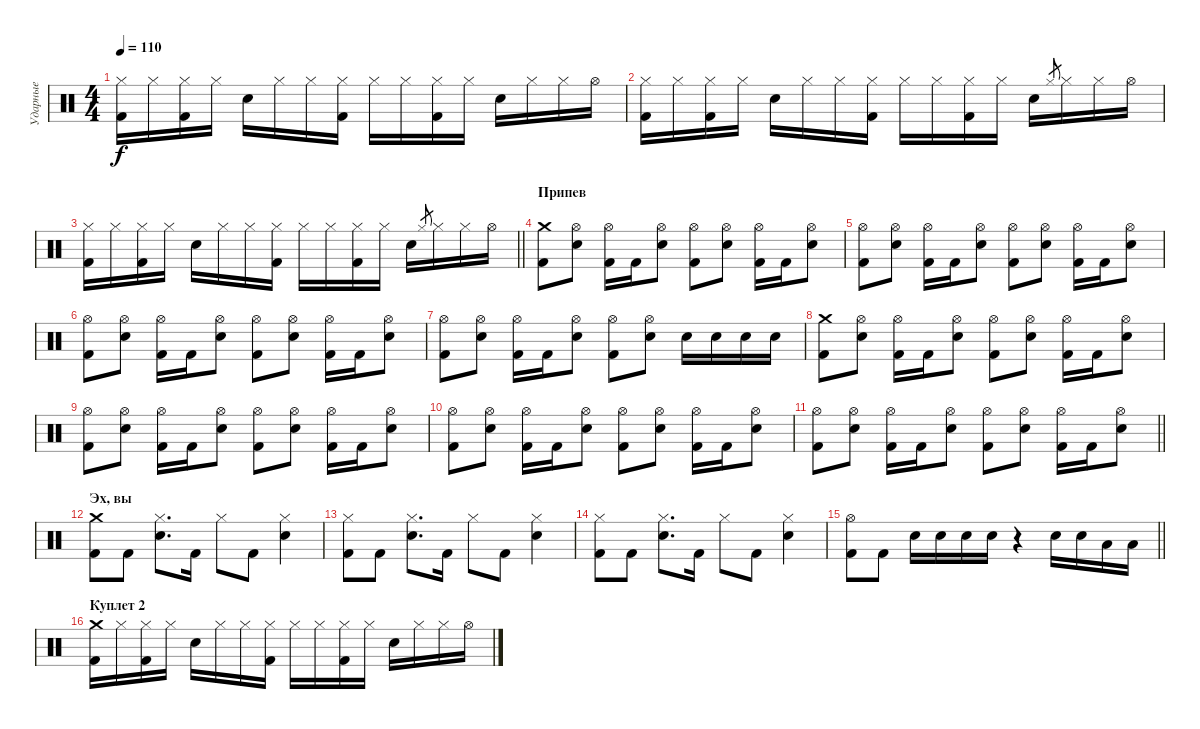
\track ("Ударные" "Ударные") {instrument percussion}
\staff {score}
\articulation defaults
\ts (4 4)
\tempo 110
\clef neutral
\ks c
("Hi-Hat (closed)" "Kick (hit) 2").16{dy f} "Hi-Hat (closed)".16 ("Hi-Hat (closed)" "Kick (hit) 2").16 "Hi-Hat (closed)".16 "Snare (hit) 2".16 "Hi-Hat (closed)".16 "Hi-Hat (closed)".16 ("Hi-Hat (closed)" "Kick (hit) 2").16 "Hi-Hat (closed)".16 "Hi-Hat (closed)".16 ("Hi-Hat (closed)" "Kick (hit) 2").16 "Hi-Hat (closed)".16 "Snare (hit) 2".16 "Hi-Hat (closed)".16 "Hi-Hat (closed)".16 "Hi-Hat (open)".16 |
("Hi-Hat (closed)" "Kick (hit) 2").16 "Hi-Hat (closed)".16 ("Hi-Hat (closed)" "Kick (hit) 2").16 "Hi-Hat (closed)".16 "Snare (hit) 2".16 "Hi-Hat (closed)".16 "Hi-Hat (closed)".16 ("Hi-Hat (closed)" "Kick (hit) 2").16 "Hi-Hat (closed)".16 "Hi-Hat (closed)".16 ("Hi-Hat (closed)" "Kick (hit) 2").16 "Hi-Hat (closed)".16 "Snare (hit) 2".16 "Hi-Hat (closed)".8{gr} "Hi-Hat (closed)".16 "Hi-Hat (closed)".16 "Hi-Hat (open)".16 |
\barLineRight lightlight
("Hi-Hat (closed)" "Kick (hit) 2").16 "Hi-Hat (closed)".16 ("Hi-Hat (closed)" "Kick (hit) 2").16 "Hi-Hat (closed)".16 "Snare (hit) 2".16 "Hi-Hat (closed)".16 "Hi-Hat (closed)".16 ("Hi-Hat (closed)" "Kick (hit) 2").16 "Hi-Hat (closed)".16 "Hi-Hat (closed)".16 ("Hi-Hat (closed)" "Kick (hit) 2").16 "Hi-Hat (closed)".16 "Snare (hit) 2".16 "Hi-Hat (closed)".8{gr} "Hi-Hat (closed)".16 "Hi-Hat (closed)".16 "Hi-Hat (open)".16 |
\section ("" "Припев")
("Crash medium (hit)" "Kick (hit) 2").8 ("Hi-Hat (open)" "Snare (hit) 2").8 ("Hi-Hat (open)" "Kick (hit) 2").16 "Kick (hit) 2".16 ("Hi-Hat (open)" "Snare (hit) 2").8 ("Hi-Hat (open)" "Kick (hit) 2").8 ("Hi-Hat (open)" "Snare (hit) 2").8 ("Hi-Hat (open)" "Kick (hit) 2").16 "Kick (hit) 2".16 ("Hi-Hat (open)" "Snare (hit) 2").8 |
("Hi-Hat (open)" "Kick (hit) 2").8 ("Hi-Hat (open)" "Snare (hit) 2").8 ("Hi-Hat (open)" "Kick (hit) 2").16 "Kick (hit) 2".16 ("Hi-Hat (open)" "Snare (hit) 2").8 ("Hi-Hat (open)" "Kick (hit) 2").8 ("Hi-Hat (open)" "Snare (hit) 2").8 ("Hi-Hat (open)" "Kick (hit) 2").16 "Kick (hit) 2".16 ("Hi-Hat (open)" "Snare (hit) 2").8 |
("Hi-Hat (open)" "Kick (hit) 2").8 ("Hi-Hat (open)" "Snare (hit) 2").8 ("Hi-Hat (open)" "Kick (hit) 2").16 "Kick (hit) 2".16 ("Hi-Hat (open)" "Snare (hit) 2").8 ("Hi-Hat (open)" "Kick (hit) 2").8 ("Hi-Hat (open)" "Snare (hit) 2").8 ("Hi-Hat (open)" "Kick (hit) 2").16 "Kick (hit) 2".16 ("Hi-Hat (open)" "Snare (hit) 2").8 |
("Hi-Hat (open)" "Kick (hit) 2").8 ("Hi-Hat (open)" "Snare (hit) 2").8 ("Hi-Hat (open)" "Kick (hit) 2").16 "Kick (hit) 2".16 ("Hi-Hat (open)" "Snare (hit) 2").8 ("Hi-Hat (open)" "Kick (hit) 2").8 ("Hi-Hat (open)" "Snare (hit) 2").8 "Snare (hit) 2".16 "Snare (hit) 2".16 "Snare (hit) 2".16 "Snare (hit) 2".16 |
("Crash medium (hit)" "Kick (hit) 2").8 ("Hi-Hat (open)" "Snare (hit) 2").8 ("Hi-Hat (open)" "Kick (hit) 2").16 "Kick (hit) 2".16 ("Hi-Hat (open)" "Snare (hit) 2").8 ("Hi-Hat (open)" "Kick (hit) 2").8 ("Hi-Hat (open)" "Snare (hit) 2").8 ("Hi-Hat (open)" "Kick (hit) 2").16 "Kick (hit) 2".16 ("Hi-Hat (open)" "Snare (hit) 2").8 |
("Hi-Hat (open)" "Kick (hit) 2").8 ("Hi-Hat (open)" "Snare (hit) 2").8 ("Hi-Hat (open)" "Kick (hit) 2").16 "Kick (hit) 2".16 ("Hi-Hat (open)" "Snare (hit) 2").8 ("Hi-Hat (open)" "Kick (hit) 2").8 ("Hi-Hat (open)" "Snare (hit) 2").8 ("Hi-Hat (open)" "Kick (hit) 2").16 "Kick (hit) 2".16 ("Hi-Hat (open)" "Snare (hit) 2").8 |
("Hi-Hat (open)" "Kick (hit) 2").8 ("Hi-Hat (open)" "Snare (hit) 2").8 ("Hi-Hat (open)" "Kick (hit) 2").16 "Kick (hit) 2".16 ("Hi-Hat (open)" "Snare (hit) 2").8 ("Hi-Hat (open)" "Kick (hit) 2").8 ("Hi-Hat (open)" "Snare (hit) 2").8 ("Hi-Hat (open)" "Kick (hit) 2").16 "Kick (hit) 2".16 ("Hi-Hat (open)" "Snare (hit) 2").8 |
\barLineRight lightlight
("Hi-Hat (open)" "Kick (hit) 2").8 ("Hi-Hat (open)" "Snare (hit) 2").8 ("Hi-Hat (open)" "Kick (hit) 2").16 "Kick (hit) 2".16 ("Hi-Hat (open)" "Snare (hit) 2").8 ("Hi-Hat (open)" "Kick (hit) 2").8 ("Hi-Hat (open)" "Snare (hit) 2").8 ("Hi-Hat (open)" "Kick (hit) 2").16 "Kick (hit) 2".16 ("Hi-Hat (open)" "Snare (hit) 2").8 |
\section ("" "Эх, вы")
("Crash medium (hit)" "Kick (hit) 2").8 "Kick (hit) 2".8 ("Hi-Hat (closed)" "Snare (hit) 2").8{d} "Kick (hit) 2".16 "Hi-Hat (closed)".8 "Kick (hit) 2".8 ("Hi-Hat (closed)" "Snare (hit) 2").4 |
("Hi-Hat (closed)" "Kick (hit) 2").8 "Kick (hit) 2".8 ("Hi-Hat (closed)" "Snare (hit) 2").8{d} "Kick (hit) 2".16 "Hi-Hat (closed)".8 "Kick (hit) 2".8 ("Hi-Hat (closed)" "Snare (hit) 2").4 |
("Hi-Hat (closed)" "Kick (hit) 2").8 "Kick (hit) 2".8 ("Hi-Hat (closed)" "Snare (hit) 2").8{d} "Kick (hit) 2".16 "Hi-Hat (closed)".8 "Kick (hit) 2".8 ("Hi-Hat (closed)" "Snare (hit) 2").4 |
\barLineRight lightlight
("Hi-Hat (open)" "Kick (hit) 2").8 "Kick (hit) 2".8 "Snare (hit) 2".16 "Snare (hit) 2".16 "Snare (hit) 2".16 "Snare (hit) 2".16 r.4 "Snare (hit) 2".16 "Snare (hit) 2".16 "Low Tom (hit)".16 "Low Floor Tom (hit)".16 |
\section ("" "Куплет 2")
("Crash medium (hit)" "Kick (hit) 2").16 "Hi-Hat (closed)".16 ("Hi-Hat (closed)" "Kick (hit) 2").16 "Hi-Hat (closed)".16 "Snare (hit) 2".16 "Hi-Hat (closed)".16 "Hi-Hat (closed)".16 ("Hi-Hat (closed)" "Kick (hit) 2").16 "Hi-Hat (closed)".16 "Hi-Hat (closed)".16 ("Hi-Hat (closed)" "Kick (hit) 2").16 "Hi-Hat (closed)".16 "Snare (hit) 2".16 "Hi-Hat (closed)".16 "Hi-Hat (closed)".16 "Hi-Hat (open)".16
